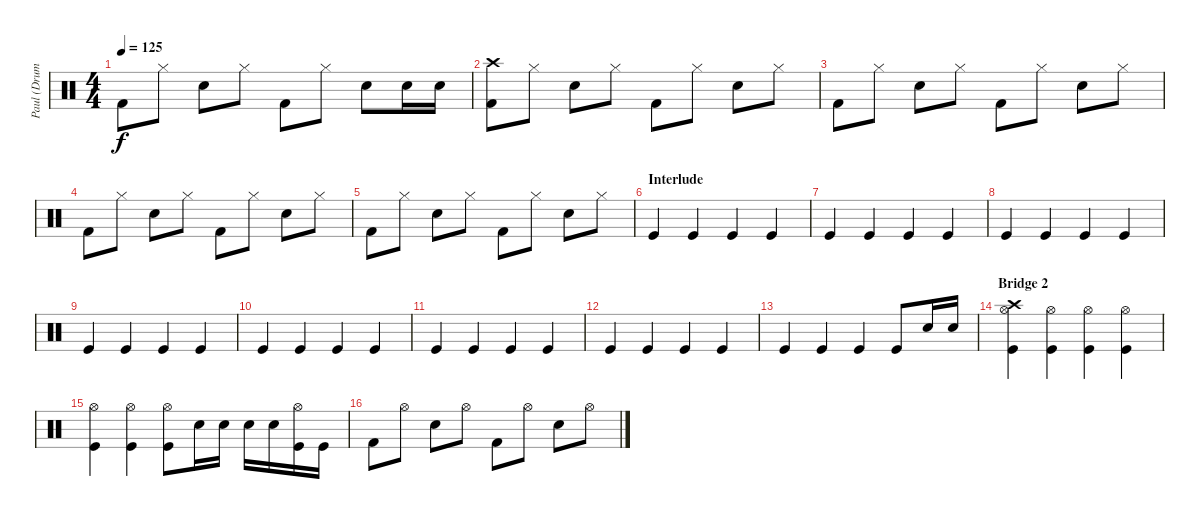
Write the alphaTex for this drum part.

\track ("Paul (Drums)" "Paul (Drum") {instrument percussion}
\staff {score}
\articulation defaults
\ts (4 4)
\tempo 125
\clef neutral
\ks c "Kick (hit) 2".8{dy f} "Hi-Hat (closed)".8 "Snare (hit) 2".8 "Hi-Hat (closed)".8 "Kick (hit) 2".8 "Hi-Hat (closed)".8 "Snare (hit) 2".8 "Snare (hit) 2".16 "Snare (hit) 2".16
|
("Crash high (hit)" "Kick (hit) 2").8 "Hi-Hat (closed)".8 "Snare (hit) 2".8 "Hi-Hat (closed)".8 "Kick (hit) 2".8 "Hi-Hat (closed)".8 "Snare (hit) 2".8 "Hi-Hat (closed)".8 |
"Kick (hit) 2".8 "Hi-Hat (closed)".8 "Snare (hit) 2".8 "Hi-Hat (closed)".8 "Kick (hit) 2".8 "Hi-Hat (closed)".8 "Snare (hit) 2".8 "Hi-Hat (closed)".8 |
"Kick (hit) 2".8 "Hi-Hat (closed)".8 "Snare (hit) 2".8 "Hi-Hat (closed)".8 "Kick (hit) 2".8 "Hi-Hat (closed)".8 "Snare (hit) 2".8 "Hi-Hat (closed)".8 |
"Kick (hit) 2".8 "Hi-Hat (closed)".8 "Snare (hit) 2".8 "Hi-Hat (closed)".8 "Kick (hit) 2".8 "Hi-Hat (closed)".8 "Snare (hit) 2".8 "Hi-Hat (closed)".8 |
\section ("" "Interlude")
"Kick (hit)".4 "Kick (hit)".4 "Kick (hit)".4 "Kick (hit)".4 |
"Kick (hit)".4 "Kick (hit)".4 "Kick (hit)".4 "Kick (hit)".4 |
"Kick (hit)".4 "Kick (hit)".4 "Kick (hit)".4 "Kick (hit)".4 |
"Kick (hit)".4 "Kick (hit)".4 "Kick (hit)".4 "Kick (hit)".4 |
"Kick (hit)".4 "Kick (hit)".4 "Kick (hit)".4 "Kick (hit)".4 |
"Kick (hit)".4 "Kick (hit)".4 "Kick (hit)".4 "Kick (hit)".4 |
"Kick (hit)".4 "Kick (hit)".4 "Kick (hit)".4 "Kick (hit)".4 |
"Kick (hit)".4 "Kick (hit)".4 "Kick (hit)".4 "Kick (hit)".8 "Snare (hit) 2".16 "Snare (hit) 2".16 |
\section ("" "Bridge 2")
("Crash high (hit)" "Hi-Hat (open)" "Kick (hit)").4 ("Hi-Hat (open)" "Kick (hit)").4 ("Hi-Hat (open)" "Kick (hit)").4 ("Hi-Hat (open)" "Kick (hit)").4 |
("Hi-Hat (open)" "Kick (hit)").4 ("Hi-Hat (open)" "Kick (hit)").4 ("Hi-Hat (open)" "Kick (hit)").8 "Snare (hit) 2".16 "Snare (hit) 2".16 "Snare (hit) 2".16 "Snare (hit) 2".16 ("Hi-Hat (open)" "Kick (hit)").16 "Kick (hit)".16 |
"Kick (hit) 2".8 "Hi-Hat (open)".8 "Snare (hit) 2".8 "Hi-Hat (open)".8 "Kick (hit) 2".8 "Hi-Hat (open)".8 "Snare (hit) 2".8 "Hi-Hat (open)".8
